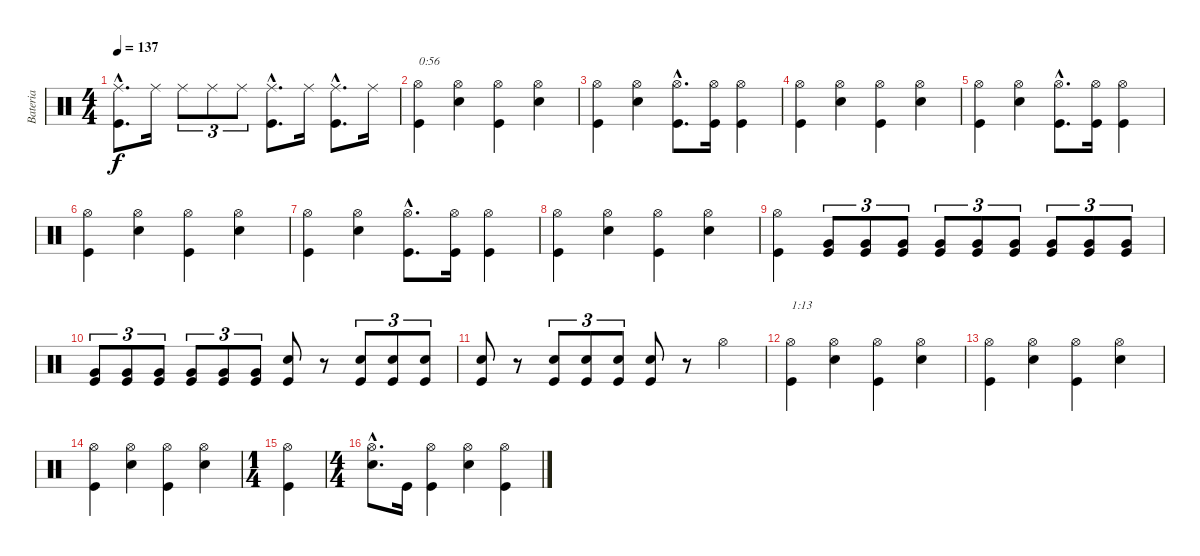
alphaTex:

\track ("Bateria" "Bateria") {instrument percussion}
\staff {score}
\articulation defaults
\ts (4 4)
\tempo 137
\clef neutral
\ks c
("Kick (hit)"{hac} "Ride (middle)"{hac}).8{d dy f} "Ride (middle)".16 "Ride (middle)".8{tu (3 2)} "Ride (middle)".8{tu (3 2)} "Ride (middle)".8{tu (3 2)} ("Kick (hit)"{hac} "Ride (middle)"{hac}).8{d} "Ride (middle)".16 ("Kick (hit)"{hac} "Ride (middle)"{hac}).8{d} "Ride (middle)".16 |
("Kick (hit)" "Hi-Hat (open)").4{txt "0:56"} ("Snare (hit) 2" "Hi-Hat (open)").4 ("Kick (hit)" "Hi-Hat (open)").4 ("Snare (hit) 2" "Hi-Hat (open)").4 |
("Kick (hit)" "Hi-Hat (open)").4 ("Snare (hit) 2" "Hi-Hat (open)").4 ("Kick (hit)"{hac} "Hi-Hat (open)"{hac}).8{d} ("Kick (hit)" "Hi-Hat (open)").16 ("Kick (hit)" "Hi-Hat (open)").4 |
("Kick (hit)" "Hi-Hat (open)").4 ("Snare (hit) 2" "Hi-Hat (open)").4 ("Kick (hit)" "Hi-Hat (open)").4 ("Snare (hit) 2" "Hi-Hat (open)").4 |
("Kick (hit)" "Hi-Hat (open)").4 ("Snare (hit) 2" "Hi-Hat (open)").4 ("Kick (hit)"{hac} "Hi-Hat (open)"{hac}).8{d} ("Kick (hit)" "Hi-Hat (open)").16 ("Kick (hit)" "Hi-Hat (open)").4 |
("Kick (hit)" "Hi-Hat (open)").4 ("Snare (hit) 2" "Hi-Hat (open)").4 ("Kick (hit)" "Hi-Hat (open)").4 ("Snare (hit) 2" "Hi-Hat (open)").4 |
("Kick (hit)" "Hi-Hat (open)").4 ("Snare (hit) 2" "Hi-Hat (open)").4 ("Kick (hit)"{hac} "Hi-Hat (open)"{hac}).8{d} ("Kick (hit)" "Hi-Hat (open)").16 ("Kick (hit)" "Hi-Hat (open)").4 |
("Kick (hit)" "Hi-Hat (open)").4 ("Snare (hit) 2" "Hi-Hat (open)").4 ("Kick (hit)" "Hi-Hat (open)").4 ("Snare (hit) 2" "Hi-Hat (open)").4 |
("Kick (hit)" "Hi-Hat (open)").4 ("Kick (hit)" "Very Low Tom (hit)").8{tu (3 2)} ("Kick (hit)" "Very Low Tom (hit)").8{tu (3 2)} ("Kick (hit)" "Very Low Tom (hit)").8{tu (3 2)} ("Kick (hit)" "Very Low Tom (hit)").8{tu (3 2)} ("Kick (hit)" "Very Low Tom (hit)").8{tu (3 2)} ("Kick (hit)" "Very Low Tom (hit)").8{tu (3 2)} ("Kick (hit)" "Very Low Tom (hit)").8{tu (3 2)} ("Kick (hit)" "Very Low Tom (hit)").8{tu (3 2)} ("Kick (hit)" "Very Low Tom (hit)").8{tu (3 2)} |
("Kick (hit)" "Very Low Tom (hit)").8{tu (3 2)} ("Kick (hit)" "Very Low Tom (hit)").8{tu (3 2)} ("Kick (hit)" "Very Low Tom (hit)").8{tu (3 2)} ("Kick (hit)" "Very Low Tom (hit)").8{tu (3 2)} ("Kick (hit)" "Very Low Tom (hit)").8{tu (3 2)} ("Kick (hit)" "Very Low Tom (hit)").8{tu (3 2)} ("Kick (hit)" "Snare (hit) 2").8 r.8 ("Kick (hit)" "Snare (hit) 2").8{tu (3 2)} ("Kick (hit)" "Snare (hit) 2").8{tu (3 2)} ("Kick (hit)" "Snare (hit) 2").8{tu (3 2)} |
("Kick (hit)" "Snare (hit) 2").8 r.8 ("Kick (hit)" "Snare (hit) 2").8{tu (3 2)} ("Kick (hit)" "Snare (hit) 2").8{tu (3 2)} ("Kick (hit)" "Snare (hit) 2").8{tu (3 2)} ("Kick (hit)" "Snare (hit) 2").8 r.8 "Hi-Hat (open)".4 |
("Kick (hit)" "Hi-Hat (open)").4{txt "1:13"} ("Snare (hit) 2" "Hi-Hat (open)").4 ("Kick (hit)" "Hi-Hat (open)").4 ("Snare (hit) 2" "Hi-Hat (open)").4 |
("Kick (hit)" "Hi-Hat (open)").4 ("Snare (hit) 2" "Hi-Hat (open)").4 ("Kick (hit)" "Hi-Hat (open)").4 ("Snare (hit) 2" "Hi-Hat (open)").4 |
("Kick (hit)" "Hi-Hat (open)").4 ("Snare (hit) 2" "Hi-Hat (open)").4 ("Kick (hit)" "Hi-Hat (open)").4 ("Snare (hit) 2" "Hi-Hat (open)").4 |
\ts (1 4)
("Kick (hit)" "Hi-Hat (open)").4 |
\ts (4 4)
("Snare (hit) 2"{hac} "Hi-Hat (open)"{hac}).8{d} "Kick (hit)".16 ("Kick (hit)" "Hi-Hat (open)").4 ("Snare (hit) 2" "Hi-Hat (open)").4 ("Kick (hit)" "Hi-Hat (open)").4
